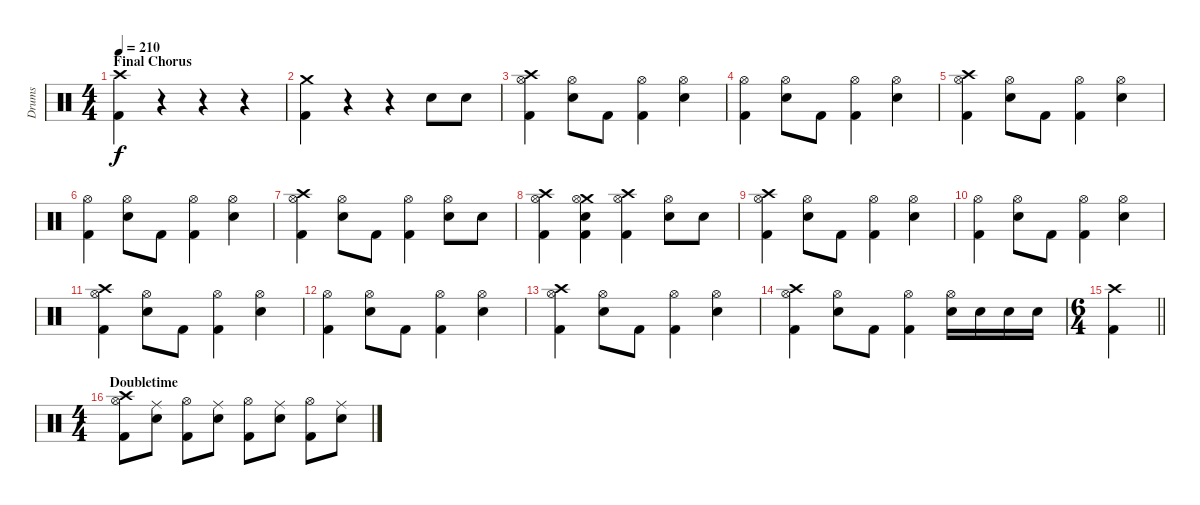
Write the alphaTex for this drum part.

\track ("Drums" "Drums") {instrument percussion}
\staff {score}
\articulation defaults
\ts (4 4)
\section ("" "Final Chorus")
\tempo 210
\clef neutral
\ks c
("Crash high (hit)" "Kick (hit) 2").4{dy f} r.4 r.4 r.4 |
("Crash medium (hit)" "Kick (hit) 2").4 r.4 r.4 "Snare (hit) 2".8 "Snare (hit) 2".8 |
("Crash high (hit)" "Hi-Hat (open)" "Kick (hit) 2").4 ("Hi-Hat (open)" "Snare (hit) 2").8 "Kick (hit) 2".8 ("Hi-Hat (open)" "Kick (hit) 2").4 ("Hi-Hat (open)" "Snare (hit) 2").4 |
("Hi-Hat (open)" "Kick (hit) 2").4 ("Hi-Hat (open)" "Snare (hit) 2").8 "Kick (hit) 2".8 ("Hi-Hat (open)" "Kick (hit) 2").4 ("Hi-Hat (open)" "Snare (hit) 2").4 |
("Crash high (hit)" "Hi-Hat (open)" "Kick (hit) 2").4 ("Hi-Hat (open)" "Snare (hit) 2").8 "Kick (hit) 2".8 ("Hi-Hat (open)" "Kick (hit) 2").4 ("Hi-Hat (open)" "Snare (hit) 2").4 |
("Hi-Hat (open)" "Kick (hit) 2").4 ("Hi-Hat (open)" "Snare (hit) 2").8 "Kick (hit) 2".8 ("Hi-Hat (open)" "Kick (hit) 2").4 ("Hi-Hat (open)" "Snare (hit) 2").4 |
("Crash high (hit)" "Hi-Hat (open)" "Kick (hit) 2").4 ("Hi-Hat (open)" "Snare (hit) 2").8 "Kick (hit) 2".8 ("Hi-Hat (open)" "Kick (hit) 2").4 ("Hi-Hat (open)" "Snare (hit) 2").8 "Snare (hit) 2".8 |
("Crash high (hit)" "Hi-Hat (open)" "Kick (hit) 2").4 ("Crash medium (hit)" "Hi-Hat (open)" "Snare (hit) 2" "Kick (hit) 2").4 ("Crash high (hit)" "Hi-Hat (open)" "Kick (hit) 2").4 ("Hi-Hat (open)" "Snare (hit) 2").8 "Snare (hit) 2".8 |
("Crash high (hit)" "Hi-Hat (open)" "Kick (hit) 2").4 ("Hi-Hat (open)" "Snare (hit) 2").8 "Kick (hit) 2".8 ("Hi-Hat (open)" "Kick (hit) 2").4 ("Hi-Hat (open)" "Snare (hit) 2").4 |
("Hi-Hat (open)" "Kick (hit) 2").4 ("Hi-Hat (open)" "Snare (hit) 2").8 "Kick (hit) 2".8 ("Hi-Hat (open)" "Kick (hit) 2").4 ("Hi-Hat (open)" "Snare (hit) 2").4 |
("Crash high (hit)" "Hi-Hat (open)" "Kick (hit) 2").4 ("Hi-Hat (open)" "Snare (hit) 2").8 "Kick (hit) 2".8 ("Hi-Hat (open)" "Kick (hit) 2").4 ("Hi-Hat (open)" "Snare (hit) 2").4 |
("Hi-Hat (open)" "Kick (hit) 2").4 ("Hi-Hat (open)" "Snare (hit) 2").8 "Kick (hit) 2".8 ("Hi-Hat (open)" "Kick (hit) 2").4 ("Hi-Hat (open)" "Snare (hit) 2").4 |
("Crash high (hit)" "Hi-Hat (open)" "Kick (hit) 2").4 ("Hi-Hat (open)" "Snare (hit) 2").8 "Kick (hit) 2".8 ("Hi-Hat (open)" "Kick (hit) 2").4 ("Hi-Hat (open)" "Snare (hit) 2").4 |
("Crash high (hit)" "Hi-Hat (open)" "Kick (hit) 2").4 ("Hi-Hat (open)" "Snare (hit) 2").8 "Kick (hit) 2".8 ("Hi-Hat (open)" "Kick (hit) 2").4 ("Hi-Hat (open)" "Snare (hit) 2").16 "Snare (hit) 2".16 "Snare (hit) 2".16 "Snare (hit) 2".16 |
\ts (6 4)
\barLineRight lightlight
("Crash high (hit)" "Kick (hit) 2").4 |
\ts (4 4)
\section ("" "Doubletime")
("Crash high (hit)" "Hi-Hat (open)" "Kick (hit) 2").8 ("Ride (middle)" "Snare (hit) 2").8 ("Hi-Hat (open)" "Kick (hit) 2").8 ("Ride (middle)" "Snare (hit) 2").8 ("Hi-Hat (open)" "Kick (hit) 2").8 ("Ride (middle)" "Snare (hit) 2").8 ("Hi-Hat (open)" "Kick (hit) 2").8 ("Ride (middle)" "Snare (hit) 2").8
